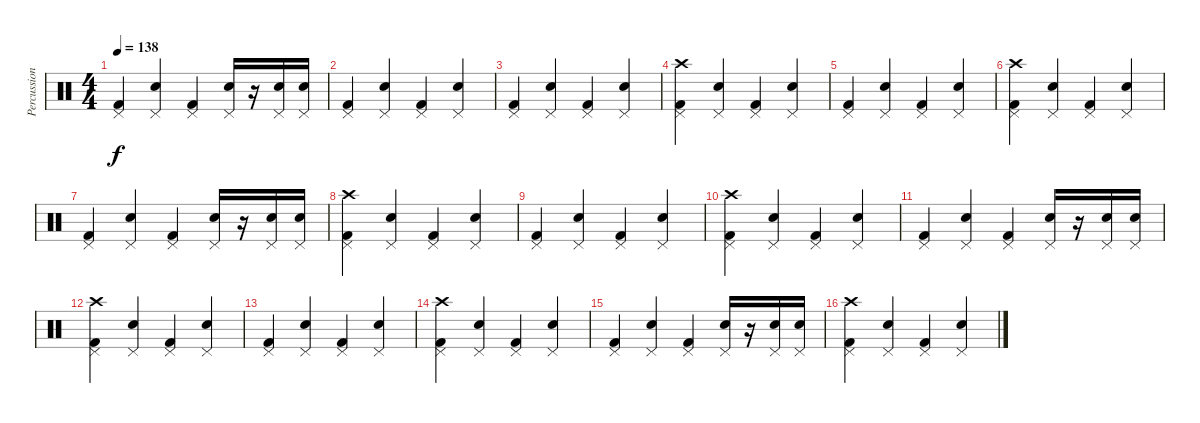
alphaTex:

\track ("Percussion" "Percussion") {instrument percussion}
\staff {score}
\articulation defaults
\ts (4 4)
\tempo 138
\clef neutral
\ks c
("Pedal Hi-Hat (hit)" "Kick (hit) 2").4{dy f} ("Pedal Hi-Hat (hit)" "Snare (hit) 2").4 ("Pedal Hi-Hat (hit)" "Kick (hit) 2").4 ("Pedal Hi-Hat (hit)" "Snare (hit) 2").16 r.16 ("Pedal Hi-Hat (hit)" "Snare (hit) 2").16 ("Pedal Hi-Hat (hit)" "Snare (hit) 2").16 |
("Pedal Hi-Hat (hit)" "Kick (hit) 2").4 ("Pedal Hi-Hat (hit)" "Snare (hit) 2").4 ("Pedal Hi-Hat (hit)" "Kick (hit) 2").4 ("Pedal Hi-Hat (hit)" "Snare (hit) 2").4 |
("Pedal Hi-Hat (hit)" "Kick (hit) 2").4 ("Pedal Hi-Hat (hit)" "Snare (hit) 2").4 ("Pedal Hi-Hat (hit)" "Kick (hit) 2").4 ("Pedal Hi-Hat (hit)" "Snare (hit) 2").4 |
("Pedal Hi-Hat (hit)" "Crash high (hit)" "Kick (hit) 2").4 ("Pedal Hi-Hat (hit)" "Snare (hit) 2").4 ("Pedal Hi-Hat (hit)" "Kick (hit) 2").4 ("Pedal Hi-Hat (hit)" "Snare (hit) 2").4 |
("Pedal Hi-Hat (hit)" "Kick (hit) 2").4 ("Pedal Hi-Hat (hit)" "Snare (hit) 2").4 ("Pedal Hi-Hat (hit)" "Kick (hit) 2").4 ("Pedal Hi-Hat (hit)" "Snare (hit) 2").4 |
("Pedal Hi-Hat (hit)" "Crash high (hit)" "Kick (hit) 2").4 ("Pedal Hi-Hat (hit)" "Snare (hit) 2").4 ("Pedal Hi-Hat (hit)" "Kick (hit) 2").4 ("Pedal Hi-Hat (hit)" "Snare (hit) 2").4 |
("Pedal Hi-Hat (hit)" "Kick (hit) 2").4 ("Pedal Hi-Hat (hit)" "Snare (hit) 2").4 ("Pedal Hi-Hat (hit)" "Kick (hit) 2").4 ("Pedal Hi-Hat (hit)" "Snare (hit) 2").16 r.16 ("Pedal Hi-Hat (hit)" "Snare (hit) 2").16 ("Pedal Hi-Hat (hit)" "Snare (hit) 2").16 |
("Pedal Hi-Hat (hit)" "Crash high (hit)" "Kick (hit) 2").4 ("Pedal Hi-Hat (hit)" "Snare (hit) 2").4 ("Pedal Hi-Hat (hit)" "Kick (hit) 2").4 ("Pedal Hi-Hat (hit)" "Snare (hit) 2").4 |
("Pedal Hi-Hat (hit)" "Kick (hit) 2").4 ("Pedal Hi-Hat (hit)" "Snare (hit) 2").4 ("Pedal Hi-Hat (hit)" "Kick (hit) 2").4 ("Pedal Hi-Hat (hit)" "Snare (hit) 2").4 |
("Pedal Hi-Hat (hit)" "Crash high (hit)" "Kick (hit) 2").4 ("Pedal Hi-Hat (hit)" "Snare (hit) 2").4 ("Pedal Hi-Hat (hit)" "Kick (hit) 2").4 ("Pedal Hi-Hat (hit)" "Snare (hit) 2").4 |
("Pedal Hi-Hat (hit)" "Kick (hit) 2").4 ("Pedal Hi-Hat (hit)" "Snare (hit) 2").4 ("Pedal Hi-Hat (hit)" "Kick (hit) 2").4 ("Pedal Hi-Hat (hit)" "Snare (hit) 2").16 r.16 ("Pedal Hi-Hat (hit)" "Snare (hit) 2").16 ("Pedal Hi-Hat (hit)" "Snare (hit) 2").16 |
("Pedal Hi-Hat (hit)" "Crash high (hit)" "Kick (hit) 2").4 ("Pedal Hi-Hat (hit)" "Snare (hit) 2").4 ("Pedal Hi-Hat (hit)" "Kick (hit) 2").4 ("Pedal Hi-Hat (hit)" "Snare (hit) 2").4 |
("Pedal Hi-Hat (hit)" "Kick (hit) 2").4 ("Pedal Hi-Hat (hit)" "Snare (hit) 2").4 ("Pedal Hi-Hat (hit)" "Kick (hit) 2").4 ("Pedal Hi-Hat (hit)" "Snare (hit) 2").4 |
("Pedal Hi-Hat (hit)" "Crash high (hit)" "Kick (hit) 2").4 ("Pedal Hi-Hat (hit)" "Snare (hit) 2").4 ("Pedal Hi-Hat (hit)" "Kick (hit) 2").4 ("Pedal Hi-Hat (hit)" "Snare (hit) 2").4 |
("Pedal Hi-Hat (hit)" "Kick (hit) 2").4 ("Pedal Hi-Hat (hit)" "Snare (hit) 2").4 ("Pedal Hi-Hat (hit)" "Kick (hit) 2").4 ("Pedal Hi-Hat (hit)" "Snare (hit) 2").16 r.16 ("Pedal Hi-Hat (hit)" "Snare (hit) 2").16 ("Pedal Hi-Hat (hit)" "Snare (hit) 2").16 |
("Pedal Hi-Hat (hit)" "Crash high (hit)" "Kick (hit) 2").4 ("Pedal Hi-Hat (hit)" "Snare (hit) 2").4 ("Pedal Hi-Hat (hit)" "Kick (hit) 2").4 ("Pedal Hi-Hat (hit)" "Snare (hit) 2").4
